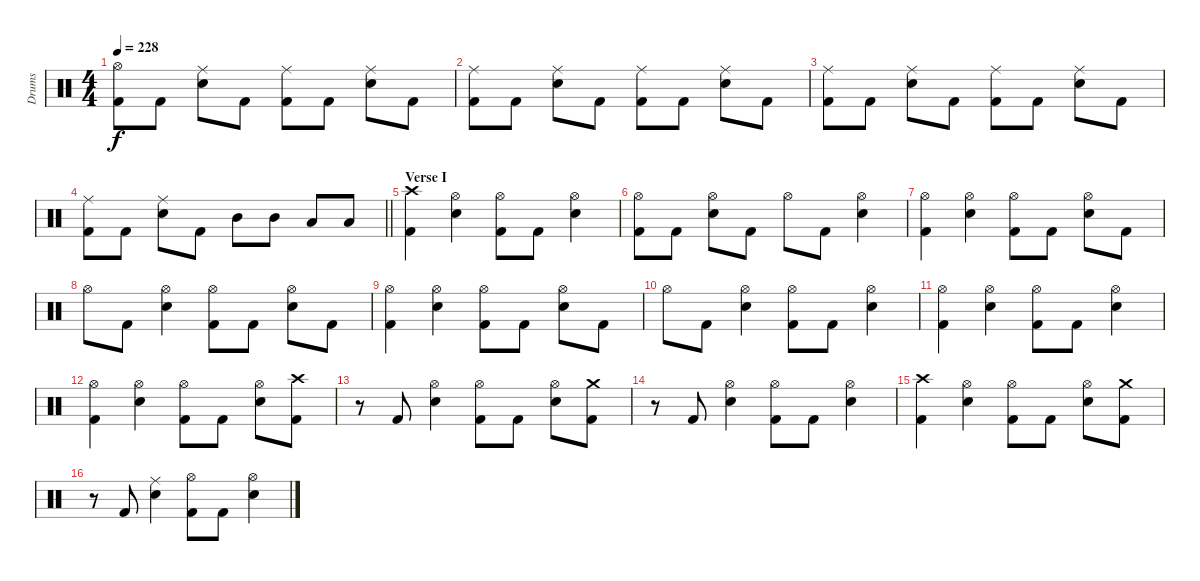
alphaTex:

\track ("Drums" "Drums") {instrument percussion}
\staff {score}
\articulation defaults
\ts (4 4)
\tempo 228
\clef neutral
\ks c
("Hi-Hat (open)" "Kick (hit) 2").8{dy f} "Kick (hit) 2".8 ("Ride (middle)" "Snare (hit) 2").8 "Kick (hit) 2".8 ("Ride (middle)" "Kick (hit) 2").8 "Kick (hit) 2".8 ("Ride (middle)" "Snare (hit) 2").8 "Kick (hit) 2".8 |
("Ride (middle)" "Kick (hit) 2").8 "Kick (hit) 2".8 ("Ride (middle)" "Snare (hit) 2").8 "Kick (hit) 2".8 ("Ride (middle)" "Kick (hit) 2").8 "Kick (hit) 2".8 ("Ride (middle)" "Snare (hit) 2").8 "Kick (hit) 2".8 |
("Ride (middle)" "Kick (hit) 2").8 "Kick (hit) 2".8 ("Ride (middle)" "Snare (hit) 2").8 "Kick (hit) 2".8 ("Ride (middle)" "Kick (hit) 2").8 "Kick (hit) 2".8 ("Ride (middle)" "Snare (hit) 2").8 "Kick (hit) 2".8 |
\barLineRight lightlight
("Ride (middle)" "Kick (hit) 2").8 "Kick (hit) 2".8 ("Ride (middle)" "Snare (hit) 2").8 "Kick (hit) 2".8 "Mid Tom (hit)".8 "Mid Tom (hit)".8 "Low Tom (hit)".8 "Low Tom (hit)".8 |
\section ("" "Verse I")
("Crash high (hit)" "Kick (hit) 2").4 ("Hi-Hat (open)" "Snare (hit) 2").4 ("Hi-Hat (open)" "Kick (hit) 2").8 "Kick (hit) 2".8 ("Hi-Hat (open)" "Snare (hit) 2").4 |
("Hi-Hat (open)" "Kick (hit) 2").8 "Kick (hit) 2".8 ("Hi-Hat (open)" "Snare (hit) 2").8 "Kick (hit) 2".8 "Hi-Hat (open)".8 "Kick (hit) 2".8 ("Hi-Hat (open)" "Snare (hit) 2").4 |
("Hi-Hat (open)" "Kick (hit) 2").4 ("Hi-Hat (open)" "Snare (hit) 2").4 ("Hi-Hat (open)" "Kick (hit) 2").8 "Kick (hit) 2".8 ("Hi-Hat (open)" "Snare (hit) 2").8 "Kick (hit) 2".8 |
"Hi-Hat (open)".8 "Kick (hit) 2".8 ("Hi-Hat (open)" "Snare (hit) 2").4 ("Hi-Hat (open)" "Kick (hit) 2").8 "Kick (hit) 2".8 ("Hi-Hat (open)" "Snare (hit) 2").8 "Kick (hit) 2".8 |
("Hi-Hat (open)" "Kick (hit) 2").4 ("Hi-Hat (open)" "Snare (hit) 2").4 ("Hi-Hat (open)" "Kick (hit) 2").8 "Kick (hit) 2".8 ("Hi-Hat (open)" "Snare (hit) 2").8 "Kick (hit) 2".8 |
"Hi-Hat (open)".8 "Kick (hit) 2".8 ("Hi-Hat (open)" "Snare (hit) 2").4 ("Hi-Hat (open)" "Kick (hit) 2").8 "Kick (hit) 2".8 ("Hi-Hat (open)" "Snare (hit) 2").4 |
("Hi-Hat (open)" "Kick (hit) 2").4 ("Hi-Hat (open)" "Snare (hit) 2").4 ("Hi-Hat (open)" "Kick (hit) 2").8 "Kick (hit) 2".8 ("Hi-Hat (open)" "Snare (hit) 2").4 |
("Hi-Hat (open)" "Kick (hit) 2").4 ("Hi-Hat (open)" "Snare (hit) 2").4 ("Hi-Hat (open)" "Kick (hit) 2").8 "Kick (hit) 2".8 ("Hi-Hat (open)" "Snare (hit) 2").8 ("Crash high (hit)" "Kick (hit) 2").8 |
r.8 "Kick (hit) 2".8 ("Hi-Hat (open)" "Snare (hit) 2").4 ("Hi-Hat (open)" "Kick (hit) 2").8 "Kick (hit) 2".8 ("Hi-Hat (open)" "Snare (hit) 2").8 ("Crash medium (hit)" "Kick (hit) 2").8 |
r.8 "Kick (hit) 2".8 ("Hi-Hat (open)" "Snare (hit) 2").4 ("Hi-Hat (open)" "Kick (hit) 2").8 "Kick (hit) 2".8 ("Hi-Hat (open)" "Snare (hit) 2").4 |
("Crash high (hit)" "Kick (hit) 2").4 ("Hi-Hat (open)" "Snare (hit) 2").4 ("Hi-Hat (open)" "Kick (hit) 2").8 "Kick (hit) 2".8 ("Hi-Hat (open)" "Snare (hit) 2").8 ("Crash medium (hit)" "Kick (hit) 2").8 |
r.8 "Kick (hit) 2".8 ("Ride (middle)" "Snare (hit) 2").4 ("Hi-Hat (open)" "Kick (hit) 2").8 "Kick (hit) 2".8 ("Hi-Hat (open)" "Snare (hit) 2").4
